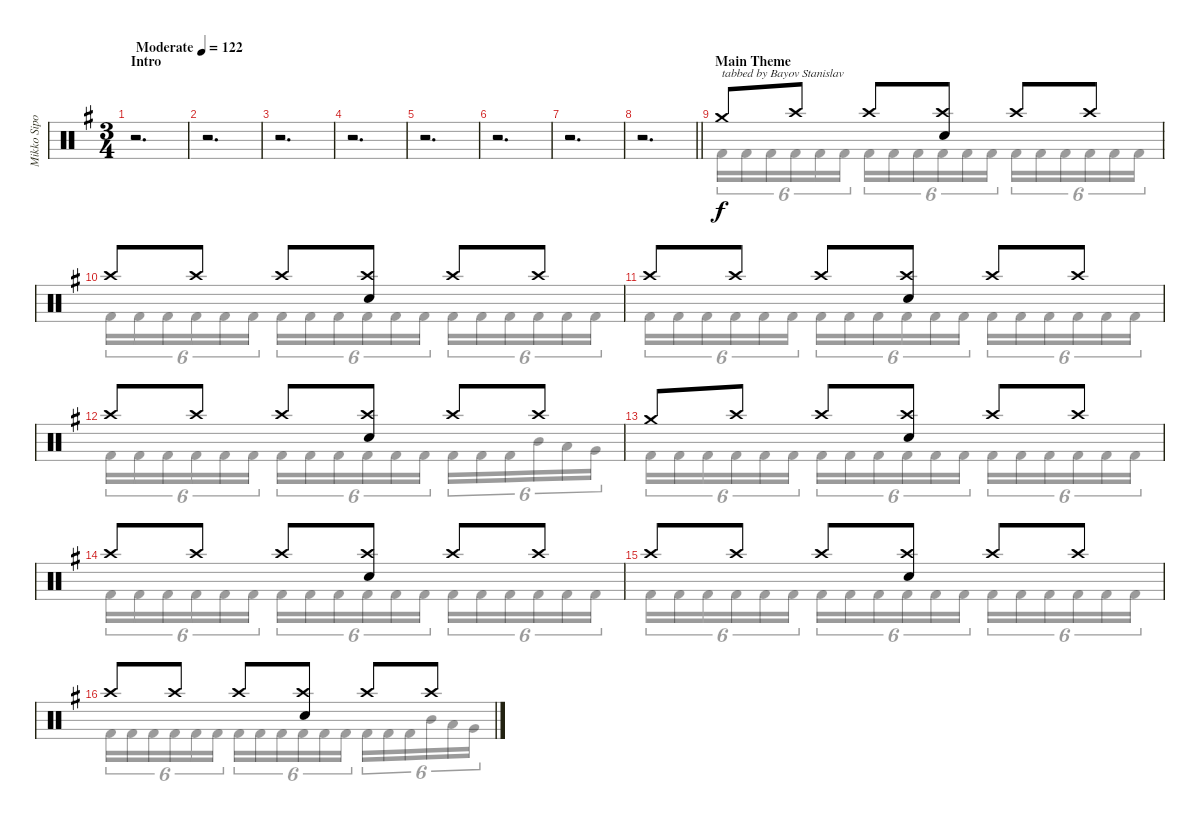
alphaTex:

\track ("Mikko Sipola - drums" "Mikko Sipo") {instrument percussion}
\staff {score}
\articulation defaults
\voice
\ts (3 4)
\section ("" "Intro")
\tempo (122 "Moderate")
\clef neutral
\ks eminor
r.2{d dy f} |
r.2{d} |
r.2{d} |
r.2{d} |
r.2{d} |
r.2{d} |
r.2{d} |
\barLineRight lightlight
r.2{d} |
\section ("" "Main Theme")
"Crash medium (hit)".8{txt "tabbed by Bayov Stanislav"} "Crash high (hit)".8 "Crash high (hit)".8 ("Snare (hit) 2" "Crash high (hit)").8 "Crash high (hit)".8 "Crash high (hit)".8 |
"Crash high (hit)".8 "Crash high (hit)".8 "Crash high (hit)".8 ("Snare (hit) 2" "Crash high (hit)").8 "Crash high (hit)".8 "Crash high (hit)".8 |
"Crash high (hit)".8 "Crash high (hit)".8 "Crash high (hit)".8 ("Snare (hit) 2" "Crash high (hit)").8 "Crash high (hit)".8 "Crash high (hit)".8 |
"Crash high (hit)".8 "Crash high (hit)".8 "Crash high (hit)".8 ("Snare (hit) 2" "Crash high (hit)").8 "Crash high (hit)".8 "Crash high (hit)".8 |
"Crash medium (hit)".8 "Crash high (hit)".8 "Crash high (hit)".8 ("Snare (hit) 2" "Crash high (hit)").8 "Crash high (hit)".8 "Crash high (hit)".8 |
"Crash high (hit)".8 "Crash high (hit)".8 "Crash high (hit)".8 ("Snare (hit) 2" "Crash high (hit)").8 "Crash high (hit)".8 "Crash high (hit)".8 |
"Crash high (hit)".8 "Crash high (hit)".8 "Crash high (hit)".8 ("Snare (hit) 2" "Crash high (hit)").8 "Crash high (hit)".8 "Crash high (hit)".8 |
"Crash high (hit)".8 "Crash high (hit)".8 "Crash high (hit)".8 ("Snare (hit) 2" "Crash high (hit)").8 "Crash high (hit)".8 "Crash high (hit)".8
\voice
\clef neutral
\ottava regular
\simile none
\ks eminor
|
|
|
|
|
|
|
\barLineRight lightlight
|
"Kick (hit) 2".16{tu (6 4)} "Kick (hit) 2".16{tu (6 4)} "Kick (hit) 2".16{tu (6 4)} "Kick (hit) 2".16{tu (6 4)} "Kick (hit) 2".16{tu (6 4)} "Kick (hit) 2".16{tu (6 4)} "Kick (hit) 2".16{tu (6 4)} "Kick (hit) 2".16{tu (6 4)} "Kick (hit) 2".16{tu (6 4)} "Kick (hit) 2".16{tu (6 4)} "Kick (hit) 2".16{tu (6 4)} "Kick (hit) 2".16{tu (6 4)} "Kick (hit) 2".16{tu (6 4)} "Kick (hit) 2".16{tu (6 4)} "Kick (hit) 2".16{tu (6 4)} "Kick (hit) 2".16{tu (6 4)} "Kick (hit) 2".16{tu (6 4)} "Kick (hit) 2".16{tu (6 4)} |
"Kick (hit) 2".16{tu (6 4)} "Kick (hit) 2".16{tu (6 4)} "Kick (hit) 2".16{tu (6 4)} "Kick (hit) 2".16{tu (6 4)} "Kick (hit) 2".16{tu (6 4)} "Kick (hit) 2".16{tu (6 4)} "Kick (hit) 2".16{tu (6 4)} "Kick (hit) 2".16{tu (6 4)} "Kick (hit) 2".16{tu (6 4)} "Kick (hit) 2".16{tu (6 4)} "Kick (hit) 2".16{tu (6 4)} "Kick (hit) 2".16{tu (6 4)} "Kick (hit) 2".16{tu (6 4)} "Kick (hit) 2".16{tu (6 4)} "Kick (hit) 2".16{tu (6 4)} "Kick (hit) 2".16{tu (6 4)} "Kick (hit) 2".16{tu (6 4)} "Kick (hit) 2".16{tu (6 4)} |
"Kick (hit) 2".16{tu (6 4)} "Kick (hit) 2".16{tu (6 4)} "Kick (hit) 2".16{tu (6 4)} "Kick (hit) 2".16{tu (6 4)} "Kick (hit) 2".16{tu (6 4)} "Kick (hit) 2".16{tu (6 4)} "Kick (hit) 2".16{tu (6 4)} "Kick (hit) 2".16{tu (6 4)} "Kick (hit) 2".16{tu (6 4)} "Kick (hit) 2".16{tu (6 4)} "Kick (hit) 2".16{tu (6 4)} "Kick (hit) 2".16{tu (6 4)} "Kick (hit) 2".16{tu (6 4)} "Kick (hit) 2".16{tu (6 4)} "Kick (hit) 2".16{tu (6 4)} "Kick (hit) 2".16{tu (6 4)} "Kick (hit) 2".16{tu (6 4)} "Kick (hit) 2".16{tu (6 4)} |
"Kick (hit) 2".16{tu (6 4)} "Kick (hit) 2".16{tu (6 4)} "Kick (hit) 2".16{tu (6 4)} "Kick (hit) 2".16{tu (6 4)} "Kick (hit) 2".16{tu (6 4)} "Kick (hit) 2".16{tu (6 4)} "Kick (hit) 2".16{tu (6 4)} "Kick (hit) 2".16{tu (6 4)} "Kick (hit) 2".16{tu (6 4)} "Kick (hit) 2".16{tu (6 4)} "Kick (hit) 2".16{tu (6 4)} "Kick (hit) 2".16{tu (6 4)} "Kick (hit) 2".16{tu (6 4)} "Kick (hit) 2".16{tu (6 4)} "Kick (hit) 2".16{tu (6 4)} "Mid Tom (hit)".16{tu (6 4)} "Low Tom (hit)".16{tu (6 4)} "Very Low Tom (hit)".16{tu (6 4)} |
"Kick (hit) 2".16{tu (6 4)} "Kick (hit) 2".16{tu (6 4)} "Kick (hit) 2".16{tu (6 4)} "Kick (hit) 2".16{tu (6 4)} "Kick (hit) 2".16{tu (6 4)} "Kick (hit) 2".16{tu (6 4)} "Kick (hit) 2".16{tu (6 4)} "Kick (hit) 2".16{tu (6 4)} "Kick (hit) 2".16{tu (6 4)} "Kick (hit) 2".16{tu (6 4)} "Kick (hit) 2".16{tu (6 4)} "Kick (hit) 2".16{tu (6 4)} "Kick (hit) 2".16{tu (6 4)} "Kick (hit) 2".16{tu (6 4)} "Kick (hit) 2".16{tu (6 4)} "Kick (hit) 2".16{tu (6 4)} "Kick (hit) 2".16{tu (6 4)} "Kick (hit) 2".16{tu (6 4)} |
"Kick (hit) 2".16{tu (6 4)} "Kick (hit) 2".16{tu (6 4)} "Kick (hit) 2".16{tu (6 4)} "Kick (hit) 2".16{tu (6 4)} "Kick (hit) 2".16{tu (6 4)} "Kick (hit) 2".16{tu (6 4)} "Kick (hit) 2".16{tu (6 4)} "Kick (hit) 2".16{tu (6 4)} "Kick (hit) 2".16{tu (6 4)} "Kick (hit) 2".16{tu (6 4)} "Kick (hit) 2".16{tu (6 4)} "Kick (hit) 2".16{tu (6 4)} "Kick (hit) 2".16{tu (6 4)} "Kick (hit) 2".16{tu (6 4)} "Kick (hit) 2".16{tu (6 4)} "Kick (hit) 2".16{tu (6 4)} "Kick (hit) 2".16{tu (6 4)} "Kick (hit) 2".16{tu (6 4)} |
"Kick (hit) 2".16{tu (6 4)} "Kick (hit) 2".16{tu (6 4)} "Kick (hit) 2".16{tu (6 4)} "Kick (hit) 2".16{tu (6 4)} "Kick (hit) 2".16{tu (6 4)} "Kick (hit) 2".16{tu (6 4)} "Kick (hit) 2".16{tu (6 4)} "Kick (hit) 2".16{tu (6 4)} "Kick (hit) 2".16{tu (6 4)} "Kick (hit) 2".16{tu (6 4)} "Kick (hit) 2".16{tu (6 4)} "Kick (hit) 2".16{tu (6 4)} "Kick (hit) 2".16{tu (6 4)} "Kick (hit) 2".16{tu (6 4)} "Kick (hit) 2".16{tu (6 4)} "Kick (hit) 2".16{tu (6 4)} "Kick (hit) 2".16{tu (6 4)} "Kick (hit) 2".16{tu (6 4)} |
"Kick (hit) 2".16{tu (6 4)} "Kick (hit) 2".16{tu (6 4)} "Kick (hit) 2".16{tu (6 4)} "Kick (hit) 2".16{tu (6 4)} "Kick (hit) 2".16{tu (6 4)} "Kick (hit) 2".16{tu (6 4)} "Kick (hit) 2".16{tu (6 4)} "Kick (hit) 2".16{tu (6 4)} "Kick (hit) 2".16{tu (6 4)} "Kick (hit) 2".16{tu (6 4)} "Kick (hit) 2".16{tu (6 4)} "Kick (hit) 2".16{tu (6 4)} "Kick (hit) 2".16{tu (6 4)} "Kick (hit) 2".16{tu (6 4)} "Kick (hit) 2".16{tu (6 4)} "Mid Tom (hit)".16{tu (6 4)} "Low Tom (hit)".16{tu (6 4)} "Very Low Tom (hit)".16{tu (6 4)}
